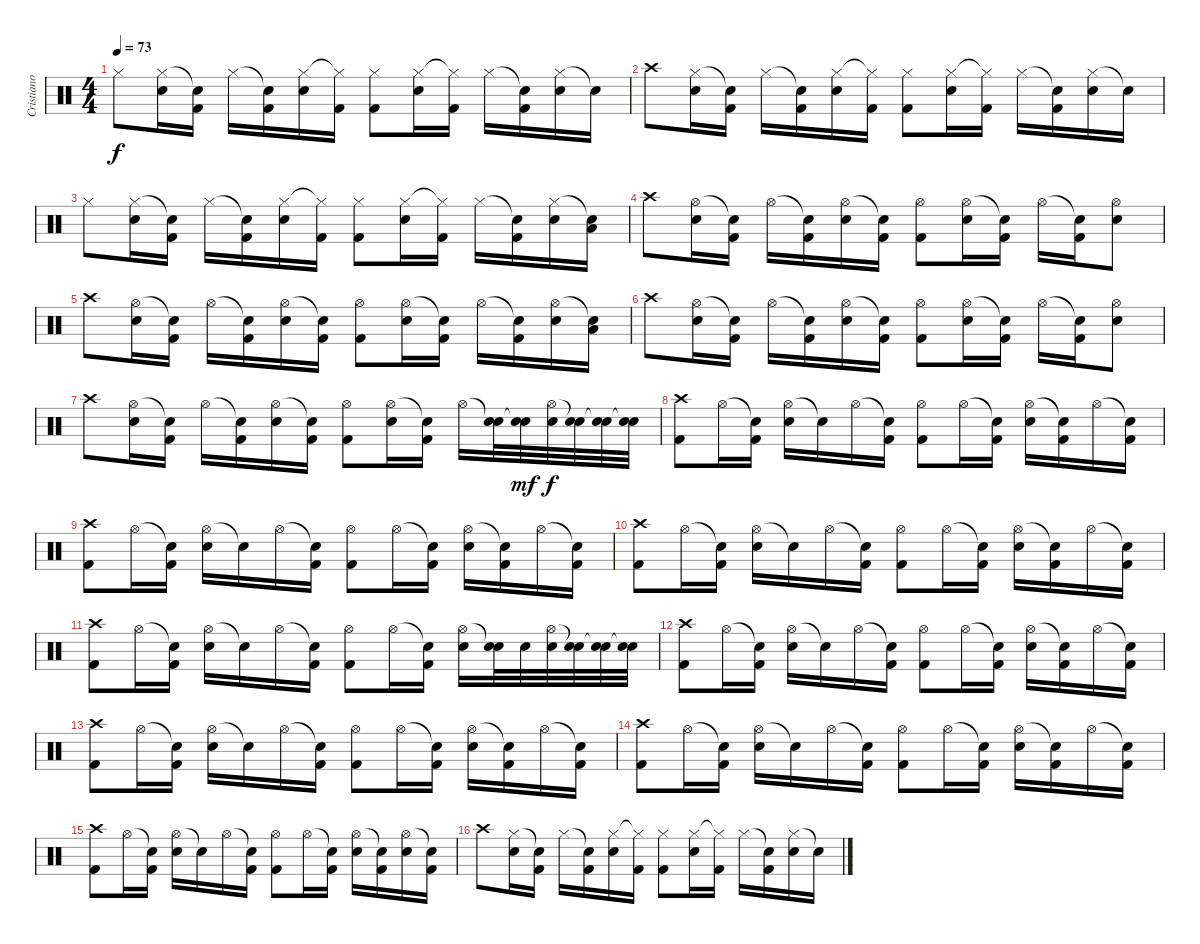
\track ("Cristiano Mozzati" "Cristiano ") {instrument percussion}
\staff {score}
\articulation defaults
\ts (4 4)
\tempo 73
\clef neutral
\ks c "Hi-Hat (closed)".8{dy f}
("Hi-Hat (closed)" "Electric Snare (hit)").16 ("Snare (hit)"{t} "Kick (hit) 2").16 "Hi-Hat (closed)".16 ("Snare (hit)"{t} "Kick (hit) 2").16 ("Hi-Hat (closed)" "Electric Snare (hit)").16 ("Hi-Hat (closed)"{t} "Kick (hit) 2").16 ("Hi-Hat (closed)" "Kick (hit) 2").8 ("Hi-Hat (closed)" "Electric Snare (hit)").16 ("Hi-Hat (closed)"{t} "Kick (hit) 2").16 "Hi-Hat (closed)".16 ("Snare (hit)"{t} "Kick (hit) 2").16 ("Hi-Hat (closed)" "Electric Snare (hit)").16 "Snare (hit)"{t}.16 |
"Crash high (hit)".8 ("Hi-Hat (closed)" "Electric Snare (hit)").16 ("Snare (hit)"{t} "Kick (hit) 2").16 "Hi-Hat (closed)".16 ("Snare (hit)"{t} "Kick (hit) 2").16 ("Hi-Hat (closed)" "Electric Snare (hit)").16 ("Hi-Hat (closed)"{t} "Kick (hit) 2").16 ("Hi-Hat (closed)" "Kick (hit) 2").8 ("Hi-Hat (closed)" "Electric Snare (hit)").16 ("Hi-Hat (closed)"{t} "Kick (hit) 2").16 "Hi-Hat (closed)".16 ("Snare (hit)"{t} "Kick (hit) 2").16 ("Hi-Hat (closed)" "Electric Snare (hit)").16 "Snare (hit)"{t}.16 |
"Hi-Hat (closed)".8 ("Hi-Hat (closed)" "Electric Snare (hit)").16 ("Snare (hit)"{t} "Kick (hit) 2").16 "Hi-Hat (closed)".16 ("Snare (hit)"{t} "Kick (hit) 2").16 ("Hi-Hat (closed)" "Electric Snare (hit)").16 ("Hi-Hat (closed)"{t} "Kick (hit) 2").16 ("Hi-Hat (closed)" "Kick (hit) 2").8 ("Hi-Hat (closed)" "Electric Snare (hit)").16 ("Hi-Hat (closed)"{t} "Kick (hit) 2").16 "Hi-Hat (closed)".16 ("Snare (hit)"{t} "Kick (hit) 2").16 ("Hi-Hat (closed)" "Electric Snare (hit)").16 ("Snare (hit)"{t} "Low Tom (hit)").16 |
"Crash high (hit)".8 ("Hi-Hat (open)" "Electric Snare (hit)").16 ("Snare (hit)"{t} "Kick (hit) 2").16 "Hi-Hat (open)".16 ("Snare (hit)"{t} "Kick (hit) 2").16 ("Hi-Hat (open)" "Electric Snare (hit)").16 ("Snare (hit)"{t} "Kick (hit) 2").16 ("Hi-Hat (open)" "Kick (hit) 2").8 ("Hi-Hat (open)" "Electric Snare (hit)").16 ("Snare (hit)"{t} "Kick (hit) 2").16 "Hi-Hat (open)".16 ("Snare (hit)"{t} "Kick (hit) 2").16 ("Hi-Hat (open)" "Electric Snare (hit)").8 |
"Crash high (hit)".8 ("Hi-Hat (open)" "Electric Snare (hit)").16 ("Snare (hit)"{t} "Kick (hit) 2").16 "Hi-Hat (open)".16 ("Snare (hit)"{t} "Kick (hit) 2").16 ("Hi-Hat (open)" "Electric Snare (hit)").16 ("Snare (hit)"{t} "Kick (hit) 2").16 ("Hi-Hat (open)" "Kick (hit) 2").8 ("Hi-Hat (open)" "Electric Snare (hit)").16 ("Snare (hit)"{t} "Kick (hit) 2").16 "Hi-Hat (open)".16 ("Snare (hit)"{t} "Kick (hit) 2").16 ("Hi-Hat (open)" "Electric Snare (hit)").16 ("Snare (hit)"{t} "Low Tom (hit)").16 |
"Crash high (hit)".8 ("Hi-Hat (open)" "Electric Snare (hit)").16 ("Snare (hit)"{t} "Kick (hit) 2").16 "Hi-Hat (open)".16 ("Snare (hit)"{t} "Kick (hit) 2").16 ("Hi-Hat (open)" "Electric Snare (hit)").16 ("Snare (hit)"{t} "Kick (hit) 2").16 ("Hi-Hat (open)" "Kick (hit) 2").8 ("Hi-Hat (open)" "Electric Snare (hit)").16 ("Snare (hit)"{t} "Kick (hit) 2").16 "Hi-Hat (open)".16 ("Snare (hit)"{t} "Kick (hit) 2").16 ("Hi-Hat (open)" "Electric Snare (hit)").8 |
"Crash high (hit)".8 ("Hi-Hat (open)" "Electric Snare (hit)").16 ("Snare (hit)"{t} "Kick (hit) 2").16 "Hi-Hat (open)".16 ("Snare (hit)"{t} "Kick (hit) 2").16 ("Hi-Hat (open)" "Electric Snare (hit)").16 ("Snare (hit)"{t} "Kick (hit) 2").16 ("Hi-Hat (open)" "Kick (hit) 2").8 ("Hi-Hat (open)" "Electric Snare (hit)").16 ("Snare (hit)"{t} "Kick (hit) 2").16 "Hi-Hat (open)".16 ("Snare (hit)"{t} "Electric Snare (hit)").32 ("Snare (hit)"{t} "Electric Snare (hit)").32{dy mf} ("Hi-Hat (open)" "Electric Snare (hit)").32{dy f} ("Snare (hit)"{t} "Electric Snare (hit)").32 ("Snare (hit)"{t} "Electric Snare (hit)").32 ("Snare (hit)"{t} "Electric Snare (hit)").32 |
("Crash high (hit)" "Kick (hit) 2").8 "Hi-Hat (open)".16 ("Snare (hit)"{t} "Kick (hit) 2").16 ("Hi-Hat (open)" "Electric Snare (hit)").16 "Snare (hit)"{t}.16 "Hi-Hat (open)".16 ("Snare (hit)"{t} "Kick (hit) 2").16 ("Hi-Hat (open)" "Kick (hit) 2").8 "Hi-Hat (open)".16 ("Snare (hit)"{t} "Kick (hit) 2").16 ("Hi-Hat (open)" "Electric Snare (hit)").16 ("Snare (hit)"{t} "Kick (hit) 2").16 "Hi-Hat (open)".16 ("Snare (hit)"{t} "Kick (hit) 2").16 |
("Crash high (hit)" "Kick (hit) 2").8 "Hi-Hat (open)".16 ("Snare (hit)"{t} "Kick (hit) 2").16 ("Hi-Hat (open)" "Electric Snare (hit)").16 "Snare (hit)"{t}.16 "Hi-Hat (open)".16 ("Snare (hit)"{t} "Kick (hit) 2").16 ("Hi-Hat (open)" "Kick (hit) 2").8 "Hi-Hat (open)".16 ("Snare (hit)"{t} "Kick (hit) 2").16 ("Hi-Hat (open)" "Electric Snare (hit)").16 ("Snare (hit)"{t} "Kick (hit) 2").16 "Hi-Hat (open)".16 ("Snare (hit)"{t} "Kick (hit) 2").16 |
("Crash high (hit)" "Kick (hit) 2").8 "Hi-Hat (open)".16 ("Snare (hit)"{t} "Kick (hit) 2").16 ("Hi-Hat (open)" "Electric Snare (hit)").16 "Snare (hit)"{t}.16 "Hi-Hat (open)".16 ("Snare (hit)"{t} "Kick (hit) 2").16 ("Hi-Hat (open)" "Kick (hit) 2").8 "Hi-Hat (open)".16 ("Snare (hit)"{t} "Kick (hit) 2").16 ("Hi-Hat (open)" "Electric Snare (hit)").16 ("Snare (hit)"{t} "Kick (hit) 2").16 "Hi-Hat (open)".16 ("Snare (hit)"{t} "Kick (hit) 2").16 |
("Crash high (hit)" "Kick (hit) 2").8 "Hi-Hat (open)".16 ("Snare (hit)"{t} "Kick (hit) 2").16 ("Hi-Hat (open)" "Electric Snare (hit)").16 "Snare (hit)"{t}.16 "Hi-Hat (open)".16 ("Snare (hit)"{t} "Kick (hit) 2").16 ("Hi-Hat (open)" "Kick (hit) 2").8 "Hi-Hat (open)".16 ("Snare (hit)"{t} "Kick (hit) 2").16 ("Hi-Hat (open)" "Electric Snare (hit)").16 ("Snare (hit)"{t} "Electric Snare (hit)").32 "Electric Snare (hit)".32 ("Hi-Hat (open)" "Electric Snare (hit)").32 ("Snare (hit)"{t} "Electric Snare (hit)").32 ("Snare (hit)"{t} "Electric Snare (hit)").32 ("Snare (hit)"{t} "Electric Snare (hit)").32 |
("Crash high (hit)" "Kick (hit) 2").8 "Hi-Hat (open)".16 ("Snare (hit)"{t} "Kick (hit) 2").16 ("Hi-Hat (open)" "Electric Snare (hit)").16 "Snare (hit)"{t}.16 "Hi-Hat (open)".16 ("Snare (hit)"{t} "Kick (hit) 2").16 ("Hi-Hat (open)" "Kick (hit) 2").8 "Hi-Hat (open)".16 ("Snare (hit)"{t} "Kick (hit) 2").16 ("Hi-Hat (open)" "Electric Snare (hit)").16 ("Snare (hit)"{t} "Kick (hit) 2").16 "Hi-Hat (open)".16 ("Snare (hit)"{t} "Kick (hit) 2").16 |
("Crash high (hit)" "Kick (hit) 2").8 "Hi-Hat (open)".16 ("Snare (hit)"{t} "Kick (hit) 2").16 ("Hi-Hat (open)" "Electric Snare (hit)").16 "Snare (hit)"{t}.16 "Hi-Hat (open)".16 ("Snare (hit)"{t} "Kick (hit) 2").16 ("Hi-Hat (open)" "Kick (hit) 2").8 "Hi-Hat (open)".16 ("Snare (hit)"{t} "Kick (hit) 2").16 ("Hi-Hat (open)" "Electric Snare (hit)").16 ("Snare (hit)"{t} "Kick (hit) 2").16 "Hi-Hat (open)".16 ("Snare (hit)"{t} "Kick (hit) 2").16 |
("Crash high (hit)" "Kick (hit) 2").8 "Hi-Hat (open)".16 ("Snare (hit)"{t} "Kick (hit) 2").16 ("Hi-Hat (open)" "Electric Snare (hit)").16 "Snare (hit)"{t}.16 "Hi-Hat (open)".16 ("Snare (hit)"{t} "Kick (hit) 2").16 ("Hi-Hat (open)" "Kick (hit) 2").8 "Hi-Hat (open)".16 ("Snare (hit)"{t} "Kick (hit) 2").16 ("Hi-Hat (open)" "Electric Snare (hit)").16 ("Snare (hit)"{t} "Kick (hit) 2").16 "Hi-Hat (open)".16 ("Snare (hit)"{t} "Kick (hit) 2").16 |
("Crash high (hit)" "Kick (hit) 2").8 "Hi-Hat (open)".16 ("Snare (hit)"{t} "Kick (hit) 2").16 ("Hi-Hat (open)" "Electric Snare (hit)").16 "Snare (hit)"{t}.16 "Hi-Hat (open)".16 ("Snare (hit)"{t} "Kick (hit) 2").16 ("Hi-Hat (open)" "Kick (hit) 2").8 "Hi-Hat (open)".16 ("Snare (hit)"{t} "Kick (hit) 2").16 ("Hi-Hat (open)" "Electric Snare (hit)").16 ("Snare (hit)"{t} "Kick (hit) 2").16 ("Hi-Hat (open)" "Electric Snare (hit)").16 ("Snare (hit)"{t} "Kick (hit) 2").16 |
"Crash high (hit)".8 ("Hi-Hat (closed)" "Electric Snare (hit)").16 ("Snare (hit)"{t} "Kick (hit) 2").16 "Hi-Hat (closed)".16 ("Snare (hit)"{t} "Kick (hit) 2").16 ("Hi-Hat (closed)" "Electric Snare (hit)").16 ("Hi-Hat (closed)"{t} "Kick (hit) 2").16 ("Hi-Hat (closed)" "Kick (hit) 2").8 ("Hi-Hat (closed)" "Electric Snare (hit)").16 ("Hi-Hat (closed)"{t} "Kick (hit) 2").16 "Hi-Hat (closed)".16 ("Snare (hit)"{t} "Kick (hit) 2").16 ("Hi-Hat (closed)" "Electric Snare (hit)").16 "Snare (hit)"{t}.16
